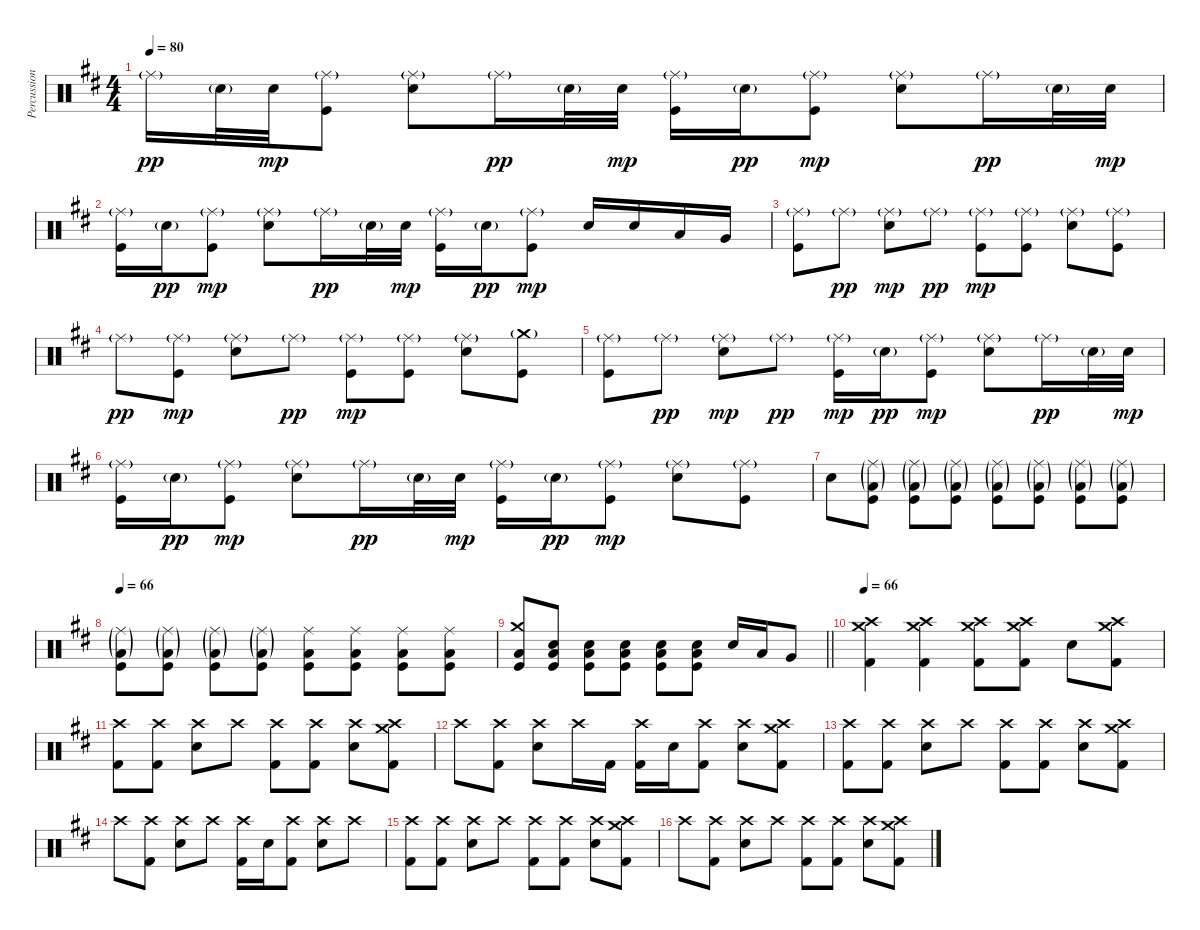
\track ("Percussion" "Percussion") {instrument percussion}
\staff {score}
\articulation defaults
\ts (4 4)
\tempo 80
\clef neutral
\ks d "Ride (middle)"{g}.16{dy pp} "Snare (hit) 2"{g}.32 "Snare (hit) 2".32{dy mp}
("Ride (middle)"{g} "Kick (hit)").8 ("Ride (middle)"{g} "Snare (hit) 2").8 "Ride (middle)"{g}.16{dy pp} "Snare (hit) 2"{g}.32 "Snare (hit) 2".32{dy mp} ("Ride (middle)"{g} "Kick (hit)").16 "Snare (hit) 2"{g}.16{dy pp} ("Ride (middle)"{g} "Kick (hit)").8{dy mp} ("Ride (middle)"{g} "Snare (hit) 2").8 "Ride (middle)"{g}.16{dy pp} "Snare (hit) 2"{g}.32 "Snare (hit) 2".32{dy mp} |
("Ride (middle)"{g} "Kick (hit)").16 "Snare (hit) 2"{g}.16{dy pp} ("Ride (middle)"{g} "Kick (hit)").8{dy mp} ("Ride (middle)"{g} "Snare (hit) 2").8 "Ride (middle)"{g}.16{dy pp} "Snare (hit) 2"{g}.32 "Snare (hit) 2".32{dy mp} ("Ride (middle)"{g} "Kick (hit)").16 "Snare (hit) 2"{g}.16{dy pp} ("Ride (middle)"{g} "Kick (hit)").8{dy mp} "Snare (hit) 2".16 "Snare (hit) 2".16 "Low Tom (hit)".16 "Very Low Tom (hit)".16 |
("Ride (middle)"{g} "Kick (hit)").8 "Ride (middle)"{g}.8{dy pp} ("Ride (middle)"{g} "Snare (hit) 2").8{dy mp} "Ride (middle)"{g}.8{dy pp} ("Ride (middle)"{g} "Kick (hit)").8{dy mp} ("Ride (middle)"{g} "Kick (hit)").8 ("Ride (middle)"{g} "Snare (hit) 2").8 ("Ride (middle)"{g} "Kick (hit)").8 |
"Ride (middle)"{g}.8{dy pp} ("Ride (middle)"{g} "Kick (hit)").8{dy mp} ("Ride (middle)"{g} "Snare (hit) 2").8 "Ride (middle)"{g}.8{dy pp} ("Ride (middle)"{g} "Kick (hit)").8{dy mp} ("Ride (middle)"{g} "Kick (hit)").8 ("Ride (middle)"{g} "Snare (hit) 2").8 ("Crash medium (hit)"{g} "Kick (hit)").8 |
("Ride (middle)"{g} "Kick (hit)").8 "Ride (middle)"{g}.8{dy pp} ("Ride (middle)"{g} "Snare (hit) 2").8{dy mp} "Ride (middle)"{g}.8{dy pp} ("Ride (middle)"{g} "Kick (hit)").16{dy mp} "Snare (hit) 2"{g}.16{dy pp} ("Ride (middle)"{g} "Kick (hit)").8{dy mp} ("Ride (middle)"{g} "Snare (hit) 2").8 "Ride (middle)"{g}.16{dy pp} "Snare (hit) 2"{g}.32 "Snare (hit) 2".32{dy mp} |
("Ride (middle)"{g} "Kick (hit)").16 "Snare (hit) 2"{g}.16{dy pp} ("Ride (middle)"{g} "Kick (hit)").8{dy mp} ("Ride (middle)"{g} "Snare (hit) 2").8 "Ride (middle)"{g}.16{dy pp} "Snare (hit) 2"{g}.32 "Snare (hit) 2".32{dy mp} ("Ride (middle)"{g} "Kick (hit)").16 "Snare (hit) 2"{g}.16{dy pp} ("Ride (middle)"{g} "Kick (hit)").8{dy mp} ("Ride (middle)"{g} "Snare (hit) 2").8 ("Ride (middle)"{g} "Kick (hit)").8 |
"Snare (hit) 2".8{volume 16} ("Ride (middle)"{g} "Low Floor Tom (hit)"{g} "Kick (hit)").8 ("Ride (middle)"{g} "Low Floor Tom (hit)"{g} "Kick (hit)").8 ("Ride (middle)"{g} "Low Floor Tom (hit)"{g} "Kick (hit)").8 ("Ride (middle)"{g} "Low Floor Tom (hit)"{g} "Kick (hit)").8 ("Ride (middle)"{g} "Low Floor Tom (hit)"{g} "Kick (hit)").8 ("Ride (middle)"{g} "Low Floor Tom (hit)"{g} "Kick (hit)").8 ("Ride (middle)"{g} "Low Floor Tom (hit)"{g} "Kick (hit)").8 |
\tempo 66
("Ride (middle)"{g} "Low Floor Tom (hit)"{g} "Kick (hit)").8 ("Ride (middle)"{g} "Low Floor Tom (hit)"{g} "Kick (hit)").8 ("Ride (middle)"{g} "Low Floor Tom (hit)"{g} "Kick (hit)").8 ("Ride (middle)"{g} "Low Floor Tom (hit)"{g} "Kick (hit)").8 ("Ride (middle)" "Low Floor Tom (hit)" "Kick (hit)").8 ("Ride (middle)" "Low Floor Tom (hit)" "Kick (hit)").8 ("Ride (middle)" "Low Floor Tom (hit)" "Kick (hit)").8 ("Ride (middle)" "Low Floor Tom (hit)" "Kick (hit)").8 |
\barLineRight lightlight
("Crash medium (hit)" "Low Floor Tom (hit)" "Kick (hit)").8 ("Snare (hit) 2" "Low Floor Tom (hit)" "Kick (hit)").8 ("Snare (hit) 2" "Low Floor Tom (hit)" "Kick (hit)").8 ("Snare (hit) 2" "Low Floor Tom (hit)" "Kick (hit)").8 ("Snare (hit) 2" "Low Floor Tom (hit)" "Kick (hit)").8 ("Snare (hit) 2" "Low Floor Tom (hit)" "Kick (hit)").8 "Snare (hit) 2".16 "Low Tom (hit)".16 "Very Low Tom (hit)".8 |
\tempo 66
("Crash high (hit)" "Crash medium (hit)" "Kick (hit) 2").4 ("Crash high (hit)" "Crash medium (hit)" "Kick (hit) 2").4 ("Crash high (hit)" "Crash medium (hit)" "Kick (hit) 2").8 ("Crash high (hit)" "Crash medium (hit)" "Kick (hit) 2").8 "Snare (hit) 2".8 ("Crash high (hit)" "Crash medium (hit)" "Kick (hit) 2").8 |
("Crash high (hit)" "Kick (hit) 2").8 ("Crash high (hit)" "Kick (hit) 2").8 ("Crash high (hit)" "Snare (hit) 2").8 "Crash high (hit)".8 ("Crash high (hit)" "Kick (hit) 2").8 ("Crash high (hit)" "Kick (hit) 2").8 ("Crash high (hit)" "Snare (hit) 2").8 ("Crash high (hit)" "Crash medium (hit)" "Kick (hit) 2").8 |
"Crash high (hit)".8 ("Crash high (hit)" "Kick (hit) 2").8 ("Crash high (hit)" "Snare (hit) 2").8 "Crash high (hit)".16 "Kick (hit) 2".16 ("Crash high (hit)" "Kick (hit) 2").16 "Snare (hit) 2".16 ("Crash high (hit)" "Kick (hit) 2").8 ("Crash high (hit)" "Snare (hit) 2").8 ("Crash high (hit)" "Crash medium (hit)" "Kick (hit) 2").8 |
("Crash high (hit)" "Kick (hit) 2").8 ("Crash high (hit)" "Kick (hit) 2").8 ("Crash high (hit)" "Snare (hit) 2").8 "Crash high (hit)".8 ("Crash high (hit)" "Kick (hit) 2").8 ("Crash high (hit)" "Kick (hit) 2").8 ("Crash high (hit)" "Snare (hit) 2").8 ("Crash high (hit)" "Crash medium (hit)" "Kick (hit) 2").8 |
"Crash high (hit)".8 ("Crash high (hit)" "Kick (hit) 2").8 ("Crash high (hit)" "Snare (hit) 2").8 "Crash high (hit)".8 ("Crash high (hit)" "Kick (hit) 2").16 "Snare (hit) 2".16 ("Crash high (hit)" "Kick (hit) 2").8 ("Crash high (hit)" "Snare (hit) 2").8 "Crash high (hit)".8 |
("Crash high (hit)" "Kick (hit) 2").8 ("Crash high (hit)" "Kick (hit) 2").8 ("Crash high (hit)" "Snare (hit) 2").8 "Crash high (hit)".8 ("Crash high (hit)" "Kick (hit) 2").8 ("Crash high (hit)" "Kick (hit) 2").8 ("Crash high (hit)" "Snare (hit) 2").8 ("Crash high (hit)" "Crash medium (hit)" "Kick (hit) 2").8 |
"Crash high (hit)".8 ("Crash high (hit)" "Kick (hit) 2").8 ("Crash high (hit)" "Snare (hit) 2").8 "Crash high (hit)".8 ("Crash high (hit)" "Kick (hit) 2").8 ("Crash high (hit)" "Kick (hit) 2").8 ("Crash high (hit)" "Snare (hit) 2").8 ("Crash high (hit)" "Crash medium (hit)" "Kick (hit) 2").8
